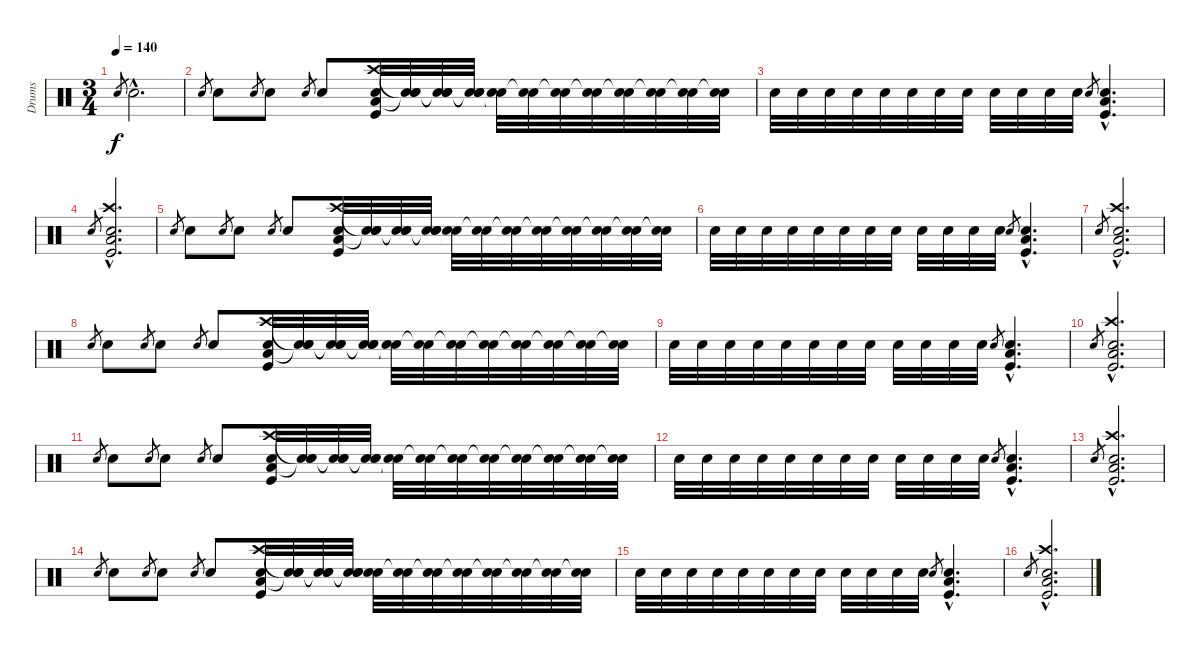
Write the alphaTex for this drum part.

\track ("Drums" "Drums") {instrument percussion}
\staff {score}
\articulation defaults
\ts (3 4)
\tempo 140
\clef neutral
\ks c "Snare (hit) 2".8{gr dy f} "Snare (hit) 2"{hac}.2{d}
|
"Snare (hit) 2".8{gr} "Snare (hit) 2".8 "Snare (hit) 2".8{gr} "Snare (hit) 2".8 "Snare (hit) 2".8{gr} "Snare (hit) 2".8 ("Crash high (hit)" "Snare (hit) 2" "Low Floor Tom (hit)" "Kick (hit)").32 ("Snare (hit)"{t} "Snare (hit) 2" "Snare (hit)"{t}).32 ("Snare (hit)"{t} "Snare (hit) 2" "Snare (hit)"{t}).32 ("Snare (hit)"{t} "Snare (hit) 2" "Snare (hit)"{t}).32 ("Snare (hit)"{t} "Snare (hit) 2").32 ("Snare (hit)"{t} "Snare (hit) 2").32 ("Snare (hit)"{t} "Snare (hit) 2").32 ("Snare (hit)"{t} "Snare (hit) 2").32 ("Snare (hit)"{t} "Snare (hit) 2").32 ("Snare (hit)"{t} "Snare (hit) 2").32 ("Snare (hit)"{t} "Snare (hit) 2").32 ("Snare (hit)"{t} "Snare (hit) 2").32 |
"Snare (hit) 2".32 "Snare (hit) 2".32 "Snare (hit) 2".32 "Snare (hit) 2".32 "Snare (hit) 2".32 "Snare (hit) 2".32 "Snare (hit) 2".32 "Snare (hit) 2".32 "Snare (hit) 2".32 "Snare (hit) 2".32 "Snare (hit) 2".32 "Snare (hit) 2".32 "Snare (hit) 2".8{gr} ("Snare (hit) 2"{hac} "Low Floor Tom (hit)"{hac} "Kick (hit)"{hac}).4{d} |
"Snare (hit) 2".8{gr} ("Crash high (hit)"{hac} "Snare (hit) 2"{hac} "Low Floor Tom (hit)"{hac} "Kick (hit)"{hac}).2{d} |
"Snare (hit) 2".8{gr} "Snare (hit) 2".8 "Snare (hit) 2".8{gr} "Snare (hit) 2".8 "Snare (hit) 2".8{gr} "Snare (hit) 2".8 ("Crash high (hit)" "Snare (hit) 2" "Low Floor Tom (hit)" "Kick (hit)").32 ("Snare (hit)"{t} "Snare (hit) 2" "Snare (hit)"{t}).32 ("Snare (hit)"{t} "Snare (hit) 2" "Snare (hit)"{t}).32 ("Snare (hit)"{t} "Snare (hit) 2" "Snare (hit)"{t}).32 ("Snare (hit)"{t} "Snare (hit) 2").32 ("Snare (hit)"{t} "Snare (hit) 2").32 ("Snare (hit)"{t} "Snare (hit) 2").32 ("Snare (hit)"{t} "Snare (hit) 2").32 ("Snare (hit)"{t} "Snare (hit) 2").32 ("Snare (hit)"{t} "Snare (hit) 2").32 ("Snare (hit)"{t} "Snare (hit) 2").32 ("Snare (hit)"{t} "Snare (hit) 2").32 |
"Snare (hit) 2".32 "Snare (hit) 2".32 "Snare (hit) 2".32 "Snare (hit) 2".32 "Snare (hit) 2".32 "Snare (hit) 2".32 "Snare (hit) 2".32 "Snare (hit) 2".32 "Snare (hit) 2".32 "Snare (hit) 2".32 "Snare (hit) 2".32 "Snare (hit) 2".32 "Snare (hit) 2".8{gr} ("Snare (hit) 2"{hac} "Low Floor Tom (hit)"{hac} "Kick (hit)"{hac}).4{d} |
"Snare (hit) 2".8{gr} ("Crash high (hit)"{hac} "Snare (hit) 2"{hac} "Low Floor Tom (hit)"{hac} "Kick (hit)"{hac}).2{d} |
"Snare (hit) 2".8{gr} "Snare (hit) 2".8 "Snare (hit) 2".8{gr} "Snare (hit) 2".8 "Snare (hit) 2".8{gr} "Snare (hit) 2".8 ("Crash high (hit)" "Snare (hit) 2" "Low Floor Tom (hit)" "Kick (hit)").32 ("Snare (hit)"{t} "Snare (hit) 2" "Snare (hit)"{t}).32 ("Snare (hit)"{t} "Snare (hit) 2" "Snare (hit)"{t}).32 ("Snare (hit)"{t} "Snare (hit) 2" "Snare (hit)"{t}).32 ("Snare (hit)"{t} "Snare (hit) 2").32 ("Snare (hit)"{t} "Snare (hit) 2").32 ("Snare (hit)"{t} "Snare (hit) 2").32 ("Snare (hit)"{t} "Snare (hit) 2").32 ("Snare (hit)"{t} "Snare (hit) 2").32 ("Snare (hit)"{t} "Snare (hit) 2").32 ("Snare (hit)"{t} "Snare (hit) 2").32 ("Snare (hit)"{t} "Snare (hit) 2").32 |
"Snare (hit) 2".32 "Snare (hit) 2".32 "Snare (hit) 2".32 "Snare (hit) 2".32 "Snare (hit) 2".32 "Snare (hit) 2".32 "Snare (hit) 2".32 "Snare (hit) 2".32 "Snare (hit) 2".32 "Snare (hit) 2".32 "Snare (hit) 2".32 "Snare (hit) 2".32 "Snare (hit) 2".8{gr} ("Snare (hit) 2"{hac} "Low Floor Tom (hit)"{hac} "Kick (hit)"{hac}).4{d} |
"Snare (hit) 2".8{gr} ("Crash high (hit)"{hac} "Snare (hit) 2"{hac} "Low Floor Tom (hit)"{hac} "Kick (hit)"{hac}).2{d} |
"Snare (hit) 2".8{gr} "Snare (hit) 2".8 "Snare (hit) 2".8{gr} "Snare (hit) 2".8 "Snare (hit) 2".8{gr} "Snare (hit) 2".8 ("Crash high (hit)" "Snare (hit) 2" "Low Floor Tom (hit)" "Kick (hit)").32 ("Snare (hit)"{t} "Snare (hit) 2" "Snare (hit)"{t}).32 ("Snare (hit)"{t} "Snare (hit) 2" "Snare (hit)"{t}).32 ("Snare (hit)"{t} "Snare (hit) 2" "Snare (hit)"{t}).32 ("Snare (hit)"{t} "Snare (hit) 2").32 ("Snare (hit)"{t} "Snare (hit) 2").32 ("Snare (hit)"{t} "Snare (hit) 2").32 ("Snare (hit)"{t} "Snare (hit) 2").32 ("Snare (hit)"{t} "Snare (hit) 2").32 ("Snare (hit)"{t} "Snare (hit) 2").32 ("Snare (hit)"{t} "Snare (hit) 2").32 ("Snare (hit)"{t} "Snare (hit) 2").32 |
"Snare (hit) 2".32 "Snare (hit) 2".32 "Snare (hit) 2".32 "Snare (hit) 2".32 "Snare (hit) 2".32 "Snare (hit) 2".32 "Snare (hit) 2".32 "Snare (hit) 2".32 "Snare (hit) 2".32 "Snare (hit) 2".32 "Snare (hit) 2".32 "Snare (hit) 2".32 "Snare (hit) 2".8{gr} ("Snare (hit) 2"{hac} "Low Floor Tom (hit)"{hac} "Kick (hit)"{hac}).4{d} |
"Snare (hit) 2".8{gr} ("Crash high (hit)"{hac} "Snare (hit) 2"{hac} "Low Floor Tom (hit)"{hac} "Kick (hit)"{hac}).2{d} |
"Snare (hit) 2".8{gr} "Snare (hit) 2".8 "Snare (hit) 2".8{gr} "Snare (hit) 2".8 "Snare (hit) 2".8{gr} "Snare (hit) 2".8 ("Crash high (hit)" "Snare (hit) 2" "Low Floor Tom (hit)" "Kick (hit)").32 ("Snare (hit)"{t} "Snare (hit) 2" "Snare (hit)"{t}).32 ("Snare (hit)"{t} "Snare (hit) 2" "Snare (hit)"{t}).32 ("Snare (hit)"{t} "Snare (hit) 2" "Snare (hit)"{t}).32 ("Snare (hit)"{t} "Snare (hit) 2").32 ("Snare (hit)"{t} "Snare (hit) 2").32 ("Snare (hit)"{t} "Snare (hit) 2").32 ("Snare (hit)"{t} "Snare (hit) 2").32 ("Snare (hit)"{t} "Snare (hit) 2").32 ("Snare (hit)"{t} "Snare (hit) 2").32 ("Snare (hit)"{t} "Snare (hit) 2").32 ("Snare (hit)"{t} "Snare (hit) 2").32 |
"Snare (hit) 2".32 "Snare (hit) 2".32 "Snare (hit) 2".32 "Snare (hit) 2".32 "Snare (hit) 2".32 "Snare (hit) 2".32 "Snare (hit) 2".32 "Snare (hit) 2".32 "Snare (hit) 2".32 "Snare (hit) 2".32 "Snare (hit) 2".32 "Snare (hit) 2".32 "Snare (hit) 2".8{gr} ("Snare (hit) 2"{hac} "Low Floor Tom (hit)"{hac} "Kick (hit)"{hac}).4{d} |
"Snare (hit) 2".8{gr} ("Crash high (hit)"{hac} "Snare (hit) 2"{hac} "Low Floor Tom (hit)"{hac} "Kick (hit)"{hac}).2{d}
